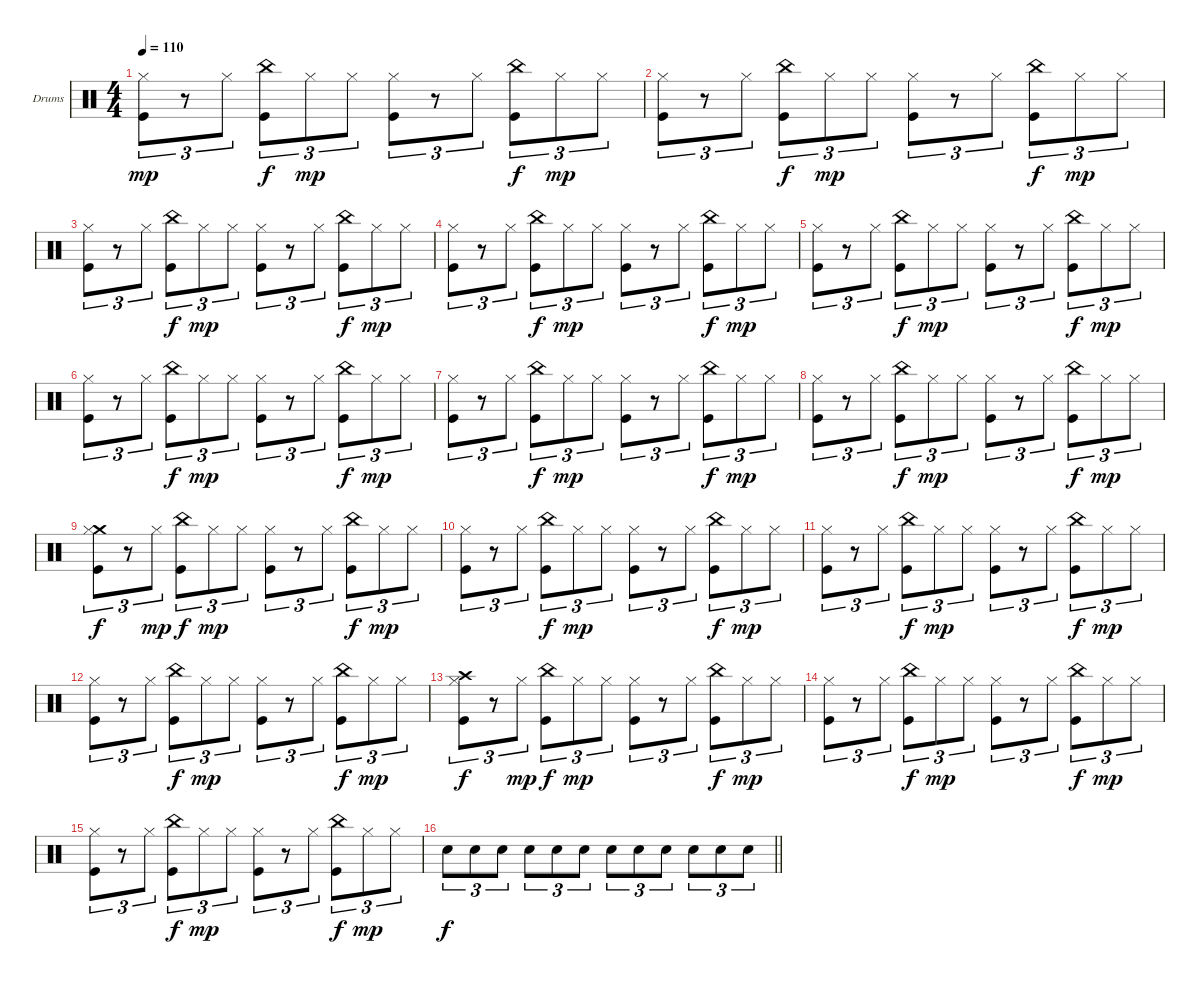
\bracketExtendMode groupsimilarinstruments
\firstSystemTrackNameOrientation horizontal
\otherSystemsTrackNameOrientation horizontal
\track ("Drumkit" "Drums") {instrument percussion}
\staff {score}
\articulation defaults
\ts (4 4)
\tempo 110
\clef neutral
\ks c
("Hi-Hat (closed)" "Kick (hit)").8{tu (3 2) dy mp} r.8{tu (3 2)} "Hi-Hat (closed)".8{tu (3 2)} ("China (hit)" "Kick (hit)").8{tu (3 2) dy f} "Hi-Hat (closed)".8{tu (3 2) dy mp} "Hi-Hat (closed)".8{tu (3 2)} ("Hi-Hat (closed)" "Kick (hit)").8{tu (3 2)} r.8{tu (3 2)} "Hi-Hat (closed)".8{tu (3 2)} ("China (hit)" "Kick (hit)").8{tu (3 2) dy f} "Hi-Hat (closed)".8{tu (3 2) dy mp} "Hi-Hat (closed)".8{tu (3 2)} |
("Hi-Hat (closed)" "Kick (hit)").8{tu (3 2)} r.8{tu (3 2)} "Hi-Hat (closed)".8{tu (3 2)} ("China (hit)" "Kick (hit)").8{tu (3 2) dy f} "Hi-Hat (closed)".8{tu (3 2) dy mp} "Hi-Hat (closed)".8{tu (3 2)} ("Hi-Hat (closed)" "Kick (hit)").8{tu (3 2)} r.8{tu (3 2)} "Hi-Hat (closed)".8{tu (3 2)} ("China (hit)" "Kick (hit)").8{tu (3 2) dy f} "Hi-Hat (closed)".8{tu (3 2) dy mp} "Hi-Hat (closed)".8{tu (3 2)} |
("Hi-Hat (closed)" "Kick (hit)").8{tu (3 2)} r.8{tu (3 2)} "Hi-Hat (closed)".8{tu (3 2)} ("China (hit)" "Kick (hit)").8{tu (3 2) dy f} "Hi-Hat (closed)".8{tu (3 2) dy mp} "Hi-Hat (closed)".8{tu (3 2)} ("Hi-Hat (closed)" "Kick (hit)").8{tu (3 2)} r.8{tu (3 2)} "Hi-Hat (closed)".8{tu (3 2)} ("China (hit)" "Kick (hit)").8{tu (3 2) dy f} "Hi-Hat (closed)".8{tu (3 2) dy mp} "Hi-Hat (closed)".8{tu (3 2)} |
("Hi-Hat (closed)" "Kick (hit)").8{tu (3 2)} r.8{tu (3 2)} "Hi-Hat (closed)".8{tu (3 2)} ("China (hit)" "Kick (hit)").8{tu (3 2) dy f} "Hi-Hat (closed)".8{tu (3 2) dy mp} "Hi-Hat (closed)".8{tu (3 2)} ("Hi-Hat (closed)" "Kick (hit)").8{tu (3 2)} r.8{tu (3 2)} "Hi-Hat (closed)".8{tu (3 2)} ("China (hit)" "Kick (hit)").8{tu (3 2) dy f} "Hi-Hat (closed)".8{tu (3 2) dy mp} "Hi-Hat (closed)".8{tu (3 2)} |
("Hi-Hat (closed)" "Kick (hit)").8{tu (3 2)} r.8{tu (3 2)} "Hi-Hat (closed)".8{tu (3 2)} ("China (hit)" "Kick (hit)").8{tu (3 2) dy f} "Hi-Hat (closed)".8{tu (3 2) dy mp} "Hi-Hat (closed)".8{tu (3 2)} ("Hi-Hat (closed)" "Kick (hit)").8{tu (3 2)} r.8{tu (3 2)} "Hi-Hat (closed)".8{tu (3 2)} ("China (hit)" "Kick (hit)").8{tu (3 2) dy f} "Hi-Hat (closed)".8{tu (3 2) dy mp} "Hi-Hat (closed)".8{tu (3 2)} |
("Hi-Hat (closed)" "Kick (hit)").8{tu (3 2)} r.8{tu (3 2)} "Hi-Hat (closed)".8{tu (3 2)} ("China (hit)" "Kick (hit)").8{tu (3 2) dy f} "Hi-Hat (closed)".8{tu (3 2) dy mp} "Hi-Hat (closed)".8{tu (3 2)} ("Hi-Hat (closed)" "Kick (hit)").8{tu (3 2)} r.8{tu (3 2)} "Hi-Hat (closed)".8{tu (3 2)} ("China (hit)" "Kick (hit)").8{tu (3 2) dy f} "Hi-Hat (closed)".8{tu (3 2) dy mp} "Hi-Hat (closed)".8{tu (3 2)} |
("Hi-Hat (closed)" "Kick (hit)").8{tu (3 2)} r.8{tu (3 2)} "Hi-Hat (closed)".8{tu (3 2)} ("China (hit)" "Kick (hit)").8{tu (3 2) dy f} "Hi-Hat (closed)".8{tu (3 2) dy mp} "Hi-Hat (closed)".8{tu (3 2)} ("Hi-Hat (closed)" "Kick (hit)").8{tu (3 2)} r.8{tu (3 2)} "Hi-Hat (closed)".8{tu (3 2)} ("China (hit)" "Kick (hit)").8{tu (3 2) dy f} "Hi-Hat (closed)".8{tu (3 2) dy mp} "Hi-Hat (closed)".8{tu (3 2)} |
("Hi-Hat (closed)" "Kick (hit)").8{tu (3 2)} r.8{tu (3 2)} "Hi-Hat (closed)".8{tu (3 2)} ("China (hit)" "Kick (hit)").8{tu (3 2) dy f} "Hi-Hat (closed)".8{tu (3 2) dy mp} "Hi-Hat (closed)".8{tu (3 2)} ("Hi-Hat (closed)" "Kick (hit)").8{tu (3 2)} r.8{tu (3 2)} "Hi-Hat (closed)".8{tu (3 2)} ("China (hit)" "Kick (hit)").8{tu (3 2) dy f} "Hi-Hat (closed)".8{tu (3 2) dy mp} "Hi-Hat (closed)".8{tu (3 2)} |
("Crash medium (hit)" "Hi-Hat (closed)" "Kick (hit)").8{tu (3 2) dy f} r.8{tu (3 2)} "Hi-Hat (closed)".8{tu (3 2) dy mp} ("China (hit)" "Kick (hit)").8{tu (3 2) dy f} "Hi-Hat (closed)".8{tu (3 2) dy mp} "Hi-Hat (closed)".8{tu (3 2)} ("Hi-Hat (closed)" "Kick (hit)").8{tu (3 2)} r.8{tu (3 2)} "Hi-Hat (closed)".8{tu (3 2)} ("China (hit)" "Kick (hit)").8{tu (3 2) dy f} "Hi-Hat (closed)".8{tu (3 2) dy mp} "Hi-Hat (closed)".8{tu (3 2)} |
("Hi-Hat (closed)" "Kick (hit)").8{tu (3 2)} r.8{tu (3 2)} "Hi-Hat (closed)".8{tu (3 2)} ("China (hit)" "Kick (hit)").8{tu (3 2) dy f} "Hi-Hat (closed)".8{tu (3 2) dy mp} "Hi-Hat (closed)".8{tu (3 2)} ("Hi-Hat (closed)" "Kick (hit)").8{tu (3 2)} r.8{tu (3 2)} "Hi-Hat (closed)".8{tu (3 2)} ("China (hit)" "Kick (hit)").8{tu (3 2) dy f} "Hi-Hat (closed)".8{tu (3 2) dy mp} "Hi-Hat (closed)".8{tu (3 2)} |
("Hi-Hat (closed)" "Kick (hit)").8{tu (3 2)} r.8{tu (3 2)} "Hi-Hat (closed)".8{tu (3 2)} ("China (hit)" "Kick (hit)").8{tu (3 2) dy f} "Hi-Hat (closed)".8{tu (3 2) dy mp} "Hi-Hat (closed)".8{tu (3 2)} ("Hi-Hat (closed)" "Kick (hit)").8{tu (3 2)} r.8{tu (3 2)} "Hi-Hat (closed)".8{tu (3 2)} ("China (hit)" "Kick (hit)").8{tu (3 2) dy f} "Hi-Hat (closed)".8{tu (3 2) dy mp} "Hi-Hat (closed)".8{tu (3 2)} |
("Hi-Hat (closed)" "Kick (hit)").8{tu (3 2)} r.8{tu (3 2)} "Hi-Hat (closed)".8{tu (3 2)} ("China (hit)" "Kick (hit)").8{tu (3 2) dy f} "Hi-Hat (closed)".8{tu (3 2) dy mp} "Hi-Hat (closed)".8{tu (3 2)} ("Hi-Hat (closed)" "Kick (hit)").8{tu (3 2)} r.8{tu (3 2)} "Hi-Hat (closed)".8{tu (3 2)} ("China (hit)" "Kick (hit)").8{tu (3 2) dy f} "Hi-Hat (closed)".8{tu (3 2) dy mp} "Hi-Hat (closed)".8{tu (3 2)} |
("Crash high (hit)" "Hi-Hat (closed)" "Kick (hit)").8{tu (3 2) dy f} r.8{tu (3 2)} "Hi-Hat (closed)".8{tu (3 2) dy mp} ("China (hit)" "Kick (hit)").8{tu (3 2) dy f} "Hi-Hat (closed)".8{tu (3 2) dy mp} "Hi-Hat (closed)".8{tu (3 2)} ("Hi-Hat (closed)" "Kick (hit)").8{tu (3 2)} r.8{tu (3 2)} "Hi-Hat (closed)".8{tu (3 2)} ("China (hit)" "Kick (hit)").8{tu (3 2) dy f} "Hi-Hat (closed)".8{tu (3 2) dy mp} "Hi-Hat (closed)".8{tu (3 2)} |
("Hi-Hat (closed)" "Kick (hit)").8{tu (3 2)} r.8{tu (3 2)} "Hi-Hat (closed)".8{tu (3 2)} ("China (hit)" "Kick (hit)").8{tu (3 2) dy f} "Hi-Hat (closed)".8{tu (3 2) dy mp} "Hi-Hat (closed)".8{tu (3 2)} ("Hi-Hat (closed)" "Kick (hit)").8{tu (3 2)} r.8{tu (3 2)} "Hi-Hat (closed)".8{tu (3 2)} ("China (hit)" "Kick (hit)").8{tu (3 2) dy f} "Hi-Hat (closed)".8{tu (3 2) dy mp} "Hi-Hat (closed)".8{tu (3 2)} |
("Hi-Hat (closed)" "Kick (hit)").8{tu (3 2)} r.8{tu (3 2)} "Hi-Hat (closed)".8{tu (3 2)} ("China (hit)" "Kick (hit)").8{tu (3 2) dy f} "Hi-Hat (closed)".8{tu (3 2) dy mp} "Hi-Hat (closed)".8{tu (3 2)} ("Hi-Hat (closed)" "Kick (hit)").8{tu (3 2)} r.8{tu (3 2)} "Hi-Hat (closed)".8{tu (3 2)} ("China (hit)" "Kick (hit)").8{tu (3 2) dy f} "Hi-Hat (closed)".8{tu (3 2) dy mp} "Hi-Hat (closed)".8{tu (3 2)} |
\barLineRight lightlight "Snare (hit) 2".8{tu (3 2) dy f} "Snare (hit) 2".8{tu (3 2)} "Snare (hit) 2".8{tu (3 2)} "Snare (hit) 2".8{tu (3 2)} "Snare (hit) 2".8{tu (3 2)} "Snare (hit) 2".8{tu (3 2)} "Snare (hit) 2".8{tu (3 2)} "Snare (hit) 2".8{tu (3 2)} "Snare (hit) 2".8{tu (3 2)} "Snare (hit) 2".8{tu (3 2)} "Snare (hit) 2".8{tu (3 2)} "Snare (hit) 2".8{tu (3 2)}
